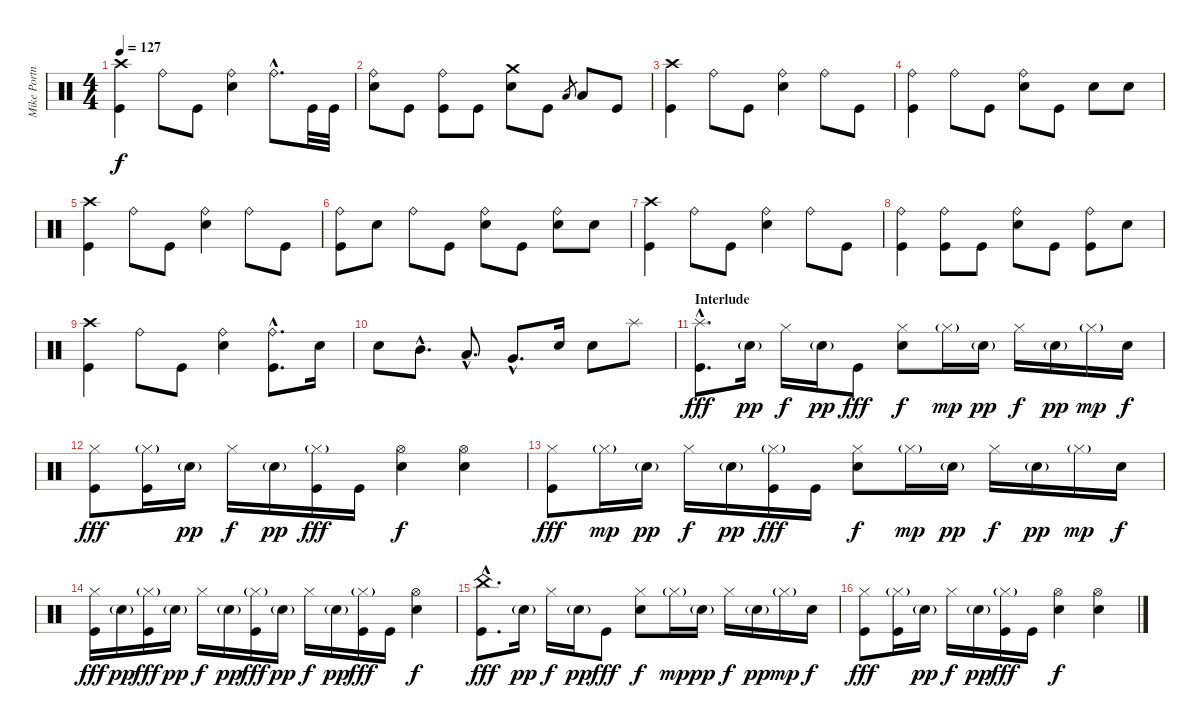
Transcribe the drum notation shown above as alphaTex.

\track ("Mike Portnoy" "Mike Portn") {instrument percussion}
\staff {score}
\articulation defaults
\ts (4 4)
\tempo 127
\clef neutral
\ks c
("Crash high (hit)" "Kick (hit)").4{dy f} "Ride (bell)".8 "Kick (hit)".8 ("Ride (bell)" "Electric Snare (hit)").4 "Ride (bell)"{hac}.8{d} "Kick (hit)".32 "Kick (hit)".32 |
("Ride (bell)" "Electric Snare (hit)").8 "Kick (hit)".8 ("Ride (bell)" "Kick (hit)").8 "Kick (hit)".8 ("Crash medium (hit)" "Electric Snare (hit)").8 "Kick (hit)".8 "Low Tom (hit)".8{gr} "Low Tom (hit)".8 "Kick (hit)".8 |
("Crash high (hit)" "Kick (hit)").4 "Ride (bell)".8 "Kick (hit)".8 ("Ride (bell)" "Electric Snare (hit)").4 "Ride (bell)".8 "Kick (hit)".8 |
("Ride (bell)" "Kick (hit)").4 "Ride (bell)".8 "Kick (hit)".8 ("Ride (bell)" "Electric Snare (hit)").8 "Kick (hit)".8 "Electric Snare (hit)".8 "Electric Snare (hit)".8 |
("Crash high (hit)" "Kick (hit)").4 "Ride (bell)".8 "Kick (hit)".8 ("Ride (bell)" "Electric Snare (hit)").4 "Ride (bell)".8 "Kick (hit)".8 |
("Ride (bell)" "Kick (hit)").8 "Electric Snare (hit)".8 "Ride (bell)".8 "Kick (hit)".8 ("Ride (bell)" "Electric Snare (hit)").8 "Kick (hit)".8 ("Ride (bell)" "Electric Snare (hit)").8 "Electric Snare (hit)".8 |
("Crash high (hit)" "Kick (hit)").4 "Ride (bell)".8 "Kick (hit)".8 ("Ride (bell)" "Electric Snare (hit)").4 "Ride (bell)".8 "Kick (hit)".8 |
("Ride (bell)" "Kick (hit)").4 ("Ride (bell)" "Kick (hit)").8 "Kick (hit)".8 ("Ride (bell)" "Electric Snare (hit)").8 "Kick (hit)".8 ("Ride (bell)" "Kick (hit)").8 "Electric Snare (hit)".8 |
("Crash high (hit)" "Kick (hit)").4 "Ride (bell)".8 "Kick (hit)".8 ("Ride (bell)" "Electric Snare (hit)").4 ("Ride (bell)"{hac} "Kick (hit)"{hac}).8{d} "Electric Snare (hit)".16 |
"Electric Snare (hit)".8 "Mid Tom (hit)"{hac}.8{d} "Low Tom (hit)"{hac}.8{d} "Very Low Tom (hit)"{hac}.8{d} "Electric Snare (hit)".16 "Electric Snare (hit)".8 "Splash (hit)".8 |
\section ("" "Interlude")
("Splash (hit)"{hac} "Kick (hit)"{hac}).8{d dy fff} "Electric Snare (hit)"{g}.16{dy pp} "Hi-Hat (closed)".16{dy f} "Electric Snare (hit)"{g}.16{dy pp} "Kick (hit)".8{dy fff} ("Hi-Hat (closed)" "Electric Snare (hit)").8{dy f} "Hi-Hat (closed)"{g}.16{dy mp} "Electric Snare (hit)"{g}.16{dy pp} "Hi-Hat (closed)".16{dy f} "Electric Snare (hit)"{g}.16{dy pp} "Hi-Hat (closed)"{g}.16{dy mp} "Electric Snare (hit)".16{dy f} |
("Hi-Hat (closed)" "Kick (hit)").8{dy fff} ("Hi-Hat (closed)"{g} "Kick (hit)").16 "Electric Snare (hit)"{g}.16{dy pp} "Hi-Hat (closed)".16{dy f} "Electric Snare (hit)"{g}.16{dy pp} ("Hi-Hat (closed)"{g} "Kick (hit)").16{dy fff} "Kick (hit)".16 ("Hi-Hat (open)" "Electric Snare (hit)").4{dy f} ("Hi-Hat (open)" "Electric Snare (hit)").4 |
("Hi-Hat (closed)" "Kick (hit)").8{dy fff} "Hi-Hat (closed)"{g}.16{dy mp} "Electric Snare (hit)"{g}.16{dy pp} "Hi-Hat (closed)".16{dy f} "Electric Snare (hit)"{g}.16{dy pp} ("Hi-Hat (closed)"{g} "Kick (hit)").16{dy fff} "Kick (hit)".16 ("Hi-Hat (closed)" "Electric Snare (hit)").8{dy f} "Hi-Hat (closed)"{g}.16{dy mp} "Electric Snare (hit)"{g}.16{dy pp} "Hi-Hat (closed)".16{dy f} "Electric Snare (hit)"{g}.16{dy pp} "Hi-Hat (closed)"{g}.16{dy mp} "Electric Snare (hit)".16{dy f} |
("Hi-Hat (closed)" "Kick (hit)").16{dy fff} "Electric Snare (hit)"{g}.16{dy pp} ("Hi-Hat (closed)"{g} "Kick (hit)").16{dy fff} "Electric Snare (hit)"{g}.16{dy pp} "Hi-Hat (closed)".16{dy f} "Electric Snare (hit)"{g}.16{dy pp} ("Hi-Hat (closed)"{g} "Kick (hit)").16{dy fff} "Electric Snare (hit)"{g}.16{dy pp} "Hi-Hat (closed)".16{dy f} "Electric Snare (hit)"{g}.16{dy pp} ("Hi-Hat (closed)"{g} "Kick (hit)").16{dy fff} "Kick (hit)".16 ("Hi-Hat (open)" "Electric Snare (hit)").4{dy f} |
("China (hit)"{hac} "Kick (hit)"{hac}).8{d dy fff} "Electric Snare (hit)"{g}.16{dy pp} "Hi-Hat (closed)".16{dy f} "Electric Snare (hit)"{g}.16{dy pp} "Kick (hit)".8{dy fff} ("Hi-Hat (closed)" "Electric Snare (hit)").8{dy f} "Hi-Hat (closed)"{g}.16{dy mp} "Electric Snare (hit)"{g}.16{dy pp} "Hi-Hat (closed)".16{dy f} "Electric Snare (hit)"{g}.16{dy pp} "Hi-Hat (closed)"{g}.16{dy mp} "Electric Snare (hit)".16{dy f} |
("Hi-Hat (closed)" "Kick (hit)").8{dy fff} ("Hi-Hat (closed)"{g} "Kick (hit)").16 "Electric Snare (hit)"{g}.16{dy pp} "Hi-Hat (closed)".16{dy f} "Electric Snare (hit)"{g}.16{dy pp} ("Hi-Hat (closed)"{g} "Kick (hit)").16{dy fff} "Kick (hit)".16 ("Hi-Hat (open)" "Electric Snare (hit)").4{dy f} ("Hi-Hat (open)" "Electric Snare (hit)").4
